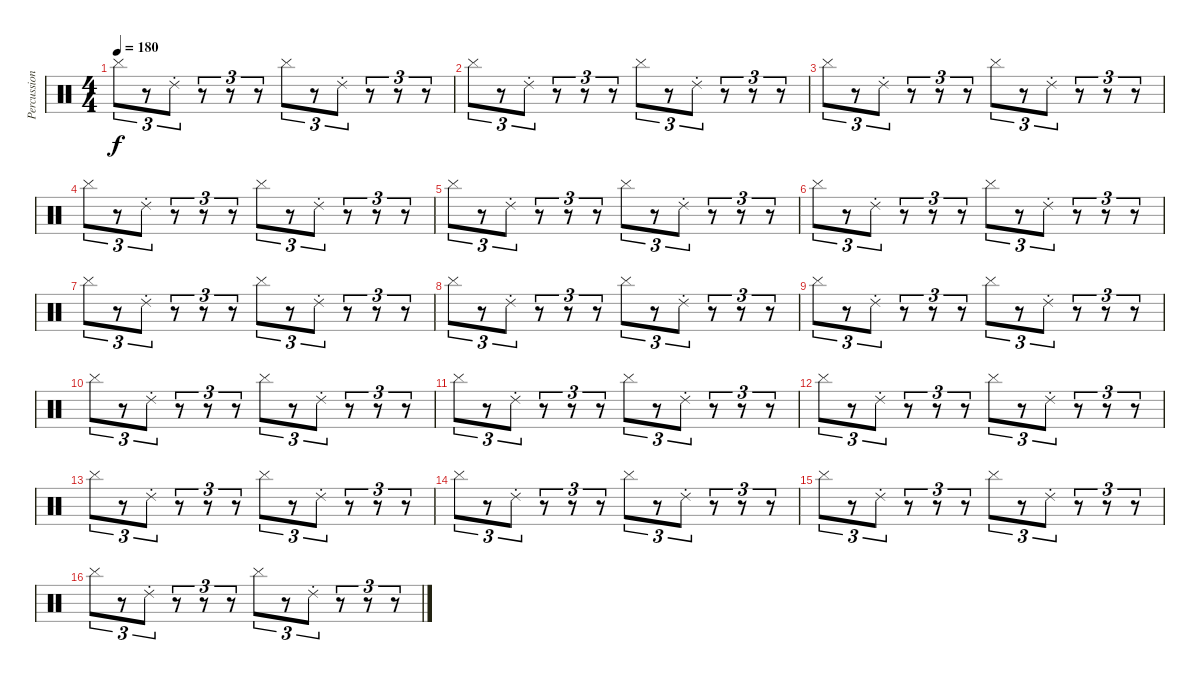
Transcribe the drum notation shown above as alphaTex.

\track ("Percussions" "Percussion") {instrument percussion}
\staff {score}
\articulation defaults
\ts (4 4)
\tempo 180
\clef neutral
\ks c "Cymbal (hit)".8{tu (3 2) dy f}
r.8{tu (3 2)} "Ride (choke) 2".8{tu (3 2)} r.8{tu (3 2)} r.8{tu (3 2)} r.8{tu (3 2)} "Cymbal (hit)".8{tu (3 2)} r.8{tu (3 2)} "Ride (choke) 2".8{tu (3 2)} r.8{tu (3 2)} r.8{tu (3 2)} r.8{tu (3 2)} |
"Cymbal (hit)".8{tu (3 2)} r.8{tu (3 2)} "Ride (choke) 2".8{tu (3 2)} r.8{tu (3 2)} r.8{tu (3 2)} r.8{tu (3 2)} "Cymbal (hit)".8{tu (3 2)} r.8{tu (3 2)} "Ride (choke) 2".8{tu (3 2)} r.8{tu (3 2)} r.8{tu (3 2)} r.8{tu (3 2)} |
"Cymbal (hit)".8{tu (3 2)} r.8{tu (3 2)} "Ride (choke) 2".8{tu (3 2)} r.8{tu (3 2)} r.8{tu (3 2)} r.8{tu (3 2)} "Cymbal (hit)".8{tu (3 2)} r.8{tu (3 2)} "Ride (choke) 2".8{tu (3 2)} r.8{tu (3 2)} r.8{tu (3 2)} r.8{tu (3 2)} |
"Cymbal (hit)".8{tu (3 2)} r.8{tu (3 2)} "Ride (choke) 2".8{tu (3 2)} r.8{tu (3 2)} r.8{tu (3 2)} r.8{tu (3 2)} "Cymbal (hit)".8{tu (3 2)} r.8{tu (3 2)} "Ride (choke) 2".8{tu (3 2)} r.8{tu (3 2)} r.8{tu (3 2)} r.8{tu (3 2)} |
"Cymbal (hit)".8{tu (3 2)} r.8{tu (3 2)} "Ride (choke) 2".8{tu (3 2)} r.8{tu (3 2)} r.8{tu (3 2)} r.8{tu (3 2)} "Cymbal (hit)".8{tu (3 2)} r.8{tu (3 2)} "Ride (choke) 2".8{tu (3 2)} r.8{tu (3 2)} r.8{tu (3 2)} r.8{tu (3 2)} |
"Cymbal (hit)".8{tu (3 2)} r.8{tu (3 2)} "Ride (choke) 2".8{tu (3 2)} r.8{tu (3 2)} r.8{tu (3 2)} r.8{tu (3 2)} "Cymbal (hit)".8{tu (3 2)} r.8{tu (3 2)} "Ride (choke) 2".8{tu (3 2)} r.8{tu (3 2)} r.8{tu (3 2)} r.8{tu (3 2)} |
"Cymbal (hit)".8{tu (3 2)} r.8{tu (3 2)} "Ride (choke) 2".8{tu (3 2)} r.8{tu (3 2)} r.8{tu (3 2)} r.8{tu (3 2)} "Cymbal (hit)".8{tu (3 2)} r.8{tu (3 2)} "Ride (choke) 2".8{tu (3 2)} r.8{tu (3 2)} r.8{tu (3 2)} r.8{tu (3 2)} |
"Cymbal (hit)".8{tu (3 2)} r.8{tu (3 2)} "Ride (choke) 2".8{tu (3 2)} r.8{tu (3 2)} r.8{tu (3 2)} r.8{tu (3 2)} "Cymbal (hit)".8{tu (3 2)} r.8{tu (3 2)} "Ride (choke) 2".8{tu (3 2)} r.8{tu (3 2)} r.8{tu (3 2)} r.8{tu (3 2)} |
"Cymbal (hit)".8{tu (3 2)} r.8{tu (3 2)} "Ride (choke) 2".8{tu (3 2)} r.8{tu (3 2)} r.8{tu (3 2)} r.8{tu (3 2)} "Cymbal (hit)".8{tu (3 2)} r.8{tu (3 2)} "Ride (choke) 2".8{tu (3 2)} r.8{tu (3 2)} r.8{tu (3 2)} r.8{tu (3 2)} |
"Cymbal (hit)".8{tu (3 2)} r.8{tu (3 2)} "Ride (choke) 2".8{tu (3 2)} r.8{tu (3 2)} r.8{tu (3 2)} r.8{tu (3 2)} "Cymbal (hit)".8{tu (3 2)} r.8{tu (3 2)} "Ride (choke) 2".8{tu (3 2)} r.8{tu (3 2)} r.8{tu (3 2)} r.8{tu (3 2)} |
"Cymbal (hit)".8{tu (3 2)} r.8{tu (3 2)} "Ride (choke) 2".8{tu (3 2)} r.8{tu (3 2)} r.8{tu (3 2)} r.8{tu (3 2)} "Cymbal (hit)".8{tu (3 2)} r.8{tu (3 2)} "Ride (choke) 2".8{tu (3 2)} r.8{tu (3 2)} r.8{tu (3 2)} r.8{tu (3 2)} |
"Cymbal (hit)".8{tu (3 2)} r.8{tu (3 2)} "Ride (choke) 2".8{tu (3 2)} r.8{tu (3 2)} r.8{tu (3 2)} r.8{tu (3 2)} "Cymbal (hit)".8{tu (3 2)} r.8{tu (3 2)} "Ride (choke) 2".8{tu (3 2)} r.8{tu (3 2)} r.8{tu (3 2)} r.8{tu (3 2)} |
"Cymbal (hit)".8{tu (3 2)} r.8{tu (3 2)} "Ride (choke) 2".8{tu (3 2)} r.8{tu (3 2)} r.8{tu (3 2)} r.8{tu (3 2)} "Cymbal (hit)".8{tu (3 2)} r.8{tu (3 2)} "Ride (choke) 2".8{tu (3 2)} r.8{tu (3 2)} r.8{tu (3 2)} r.8{tu (3 2)} |
"Cymbal (hit)".8{tu (3 2)} r.8{tu (3 2)} "Ride (choke) 2".8{tu (3 2)} r.8{tu (3 2)} r.8{tu (3 2)} r.8{tu (3 2)} "Cymbal (hit)".8{tu (3 2)} r.8{tu (3 2)} "Ride (choke) 2".8{tu (3 2)} r.8{tu (3 2)} r.8{tu (3 2)} r.8{tu (3 2)} |
"Cymbal (hit)".8{tu (3 2)} r.8{tu (3 2)} "Ride (choke) 2".8{tu (3 2)} r.8{tu (3 2)} r.8{tu (3 2)} r.8{tu (3 2)} "Cymbal (hit)".8{tu (3 2)} r.8{tu (3 2)} "Ride (choke) 2".8{tu (3 2)} r.8{tu (3 2)} r.8{tu (3 2)} r.8{tu (3 2)} |
"Cymbal (hit)".8{tu (3 2)} r.8{tu (3 2)} "Ride (choke) 2".8{tu (3 2)} r.8{tu (3 2)} r.8{tu (3 2)} r.8{tu (3 2)} "Cymbal (hit)".8{tu (3 2)} r.8{tu (3 2)} "Ride (choke) 2".8{tu (3 2)} r.8{tu (3 2)} r.8{tu (3 2)} r.8{tu (3 2)}
